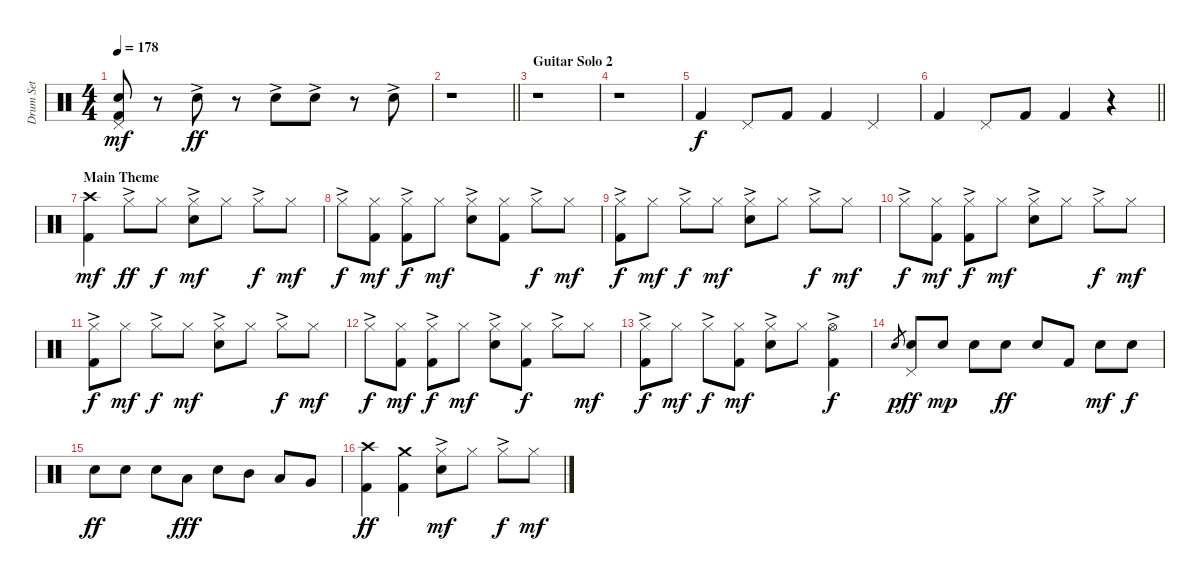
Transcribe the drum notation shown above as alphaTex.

\track ("Drum Set" "Drum Set") {instrument percussion}
\staff {score}
\articulation defaults
\ts (4 4)
\tempo 178
\clef neutral
\ks c
("Pedal Hi-Hat (hit)" "Electric Snare (hit)" "Kick (hit) 2").8{dy mf} r.8 "Electric Snare (hit)"{ac}.8{dy ff} r.8 "Electric Snare (hit)"{ac}.8{beam Down} "Electric Snare (hit)"{ac}.8{beam Down} r.8 "Electric Snare (hit)"{ac}.8 |
\barLineRight lightlight
r.1 |
\section ("" "Guitar Solo 2")
r.1 |
r.1 |
"Kick (hit) 2".4{dy f volume 10} "Pedal Hi-Hat (hit)".8{volume 13} "Kick (hit) 2".8 "Kick (hit) 2".4 "Pedal Hi-Hat (hit)".4 |
\barLineRight lightlight "Kick (hit) 2".4 "Pedal Hi-Hat (hit)".8 "Kick (hit) 2".8 "Kick (hit) 2".4
r.4 |
\section ("" "Main Theme")
("Crash high (hit)" "Kick (hit) 2").4{dy mf} "Hi-Hat (closed)"{ac}.8{dy ff} "Hi-Hat (closed)".8{dy f} ("Hi-Hat (closed)"{ac} "Electric Snare (hit)").8{dy mf} "Hi-Hat (closed)".8 "Hi-Hat (closed)"{ac}.8{dy f} "Hi-Hat (closed)".8{dy mf} |
"Hi-Hat (closed)"{ac}.8{dy f} ("Hi-Hat (closed)" "Kick (hit) 2").8{dy mf} ("Hi-Hat (closed)"{ac} "Kick (hit) 2").8{dy f} "Hi-Hat (closed)".8{dy mf} ("Hi-Hat (closed)"{ac} "Electric Snare (hit)").8 ("Hi-Hat (closed)" "Kick (hit) 2").8 "Hi-Hat (closed)"{ac}.8{dy f} "Hi-Hat (closed)".8{dy mf} |
("Hi-Hat (closed)"{ac} "Kick (hit) 2").8{dy f} "Hi-Hat (closed)".8{dy mf} "Hi-Hat (closed)"{ac}.8{dy f} "Hi-Hat (closed)".8{dy mf} ("Hi-Hat (closed)"{ac} "Electric Snare (hit)").8 "Hi-Hat (closed)".8 "Hi-Hat (closed)"{ac}.8{dy f} "Hi-Hat (closed)".8{dy mf} |
"Hi-Hat (closed)"{ac}.8{dy f} ("Hi-Hat (closed)" "Kick (hit) 2").8{dy mf} ("Hi-Hat (closed)"{ac} "Kick (hit) 2").8{dy f} "Hi-Hat (closed)".8{dy mf} ("Hi-Hat (closed)"{ac} "Electric Snare (hit)").8 "Hi-Hat (closed)".8 "Hi-Hat (closed)"{ac}.8{dy f} "Hi-Hat (closed)".8{dy mf} |
("Hi-Hat (closed)"{ac} "Kick (hit) 2").8{dy f} "Hi-Hat (closed)".8{dy mf} "Hi-Hat (closed)"{ac}.8{dy f} "Hi-Hat (closed)".8{dy mf} ("Hi-Hat (closed)"{ac} "Electric Snare (hit)").8 "Hi-Hat (closed)".8 "Hi-Hat (closed)"{ac}.8{dy f} "Hi-Hat (closed)".8{dy mf} |
"Hi-Hat (closed)"{ac}.8{dy f} ("Hi-Hat (closed)" "Kick (hit) 2").8{dy mf} ("Hi-Hat (closed)"{ac} "Kick (hit) 2").8{dy f} "Hi-Hat (closed)".8{dy mf} ("Hi-Hat (closed)"{ac} "Electric Snare (hit)").8 ("Hi-Hat (closed)" "Kick (hit) 2").8{dy f} "Hi-Hat (closed)"{ac}.8 "Hi-Hat (closed)".8{dy mf} |
("Hi-Hat (closed)"{ac} "Kick (hit) 2").8{dy f} "Hi-Hat (closed)".8{dy mf} "Hi-Hat (closed)"{ac}.8{dy f} ("Hi-Hat (closed)" "Kick (hit) 2").8{dy mf} ("Hi-Hat (closed)"{ac} "Electric Snare (hit)").8 "Hi-Hat (closed)".8 ("Hi-Hat (open)"{ac} "Kick (hit) 2").4{dy f} |
"Electric Snare (hit)".8{gr dy p} ("Pedal Hi-Hat (hit)" "Electric Snare (hit)").8{dy ff} "Electric Snare (hit)".8{dy mp} "Electric Snare (hit)".8 "Electric Snare (hit)".8{dy ff} "Electric Snare (hit)".8 "Kick (hit) 2".8 "Electric Snare (hit)".8{dy mf} "Electric Snare (hit)".8{dy f} |
"Electric Snare (hit)".8{dy ff} "Electric Snare (hit)".8 "Electric Snare (hit)".8 "Low Tom (hit)".8{dy fff} "Electric Snare (hit)".8 "Mid Tom (hit)".8 "Low Tom (hit)".8 "Very Low Tom (hit)".8 |
("Crash high (hit)" "Kick (hit) 2").4{dy ff} ("Crash medium (hit)" "Kick (hit) 2").4 ("Hi-Hat (closed)"{ac} "Electric Snare (hit)").8{dy mf} "Hi-Hat (closed)".8 "Hi-Hat (closed)"{ac}.8{dy f} "Hi-Hat (closed)".8{dy mf}
